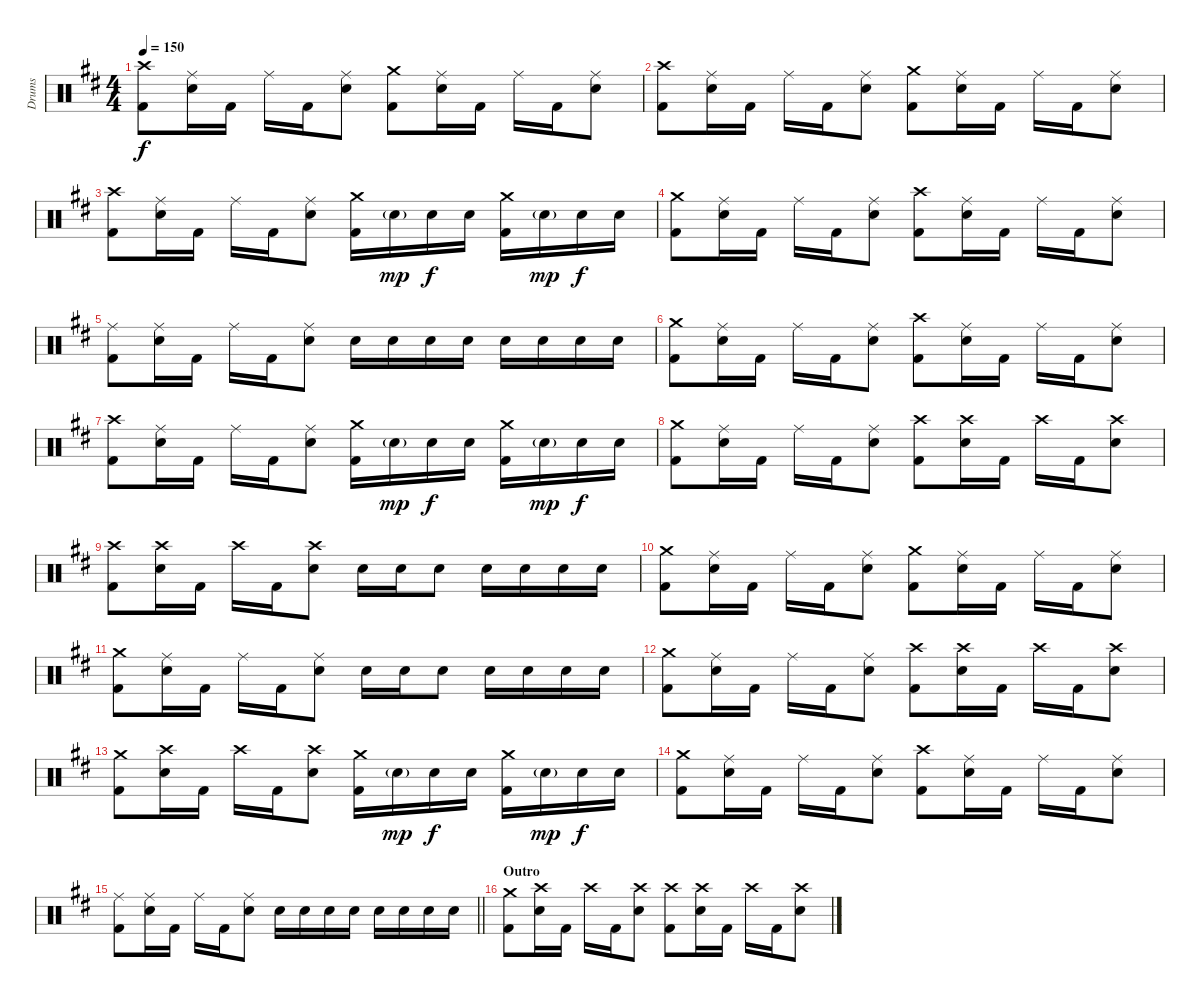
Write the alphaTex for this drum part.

\track ("Drums" "Drums") {instrument percussion}
\staff {score}
\articulation defaults
\ts (4 4)
\tempo 150
\clef neutral
\ks bminor
("Crash high (hit)" "Kick (hit) 2").8{dy f} ("Ride (middle)" "Electric Snare (hit)").16 "Kick (hit) 2".16 "Ride (middle)".16 "Kick (hit) 2".16 ("Ride (middle)" "Electric Snare (hit)").8 ("Crash medium (hit)" "Kick (hit) 2").8 ("Ride (middle)" "Electric Snare (hit)").16 "Kick (hit) 2".16 "Ride (middle)".16 "Kick (hit) 2".16 ("Ride (middle)" "Electric Snare (hit)").8 |
("Crash high (hit)" "Kick (hit) 2").8 ("Ride (middle)" "Electric Snare (hit)").16 "Kick (hit) 2".16 "Ride (middle)".16 "Kick (hit) 2".16 ("Ride (middle)" "Electric Snare (hit)").8 ("Crash medium (hit)" "Kick (hit) 2").8 ("Ride (middle)" "Electric Snare (hit)").16 "Kick (hit) 2".16 "Ride (middle)".16 "Kick (hit) 2".16 ("Ride (middle)" "Electric Snare (hit)").8 |
("Crash high (hit)" "Kick (hit) 2").8 ("Ride (middle)" "Electric Snare (hit)").16 "Kick (hit) 2".16 "Ride (middle)".16 "Kick (hit) 2".16 ("Ride (middle)" "Electric Snare (hit)").8 ("Crash medium (hit)" "Kick (hit) 2").16 "Electric Snare (hit)"{g}.16{dy mp} "Electric Snare (hit)".16{dy f} "Electric Snare (hit)".16 ("Crash medium (hit)" "Kick (hit) 2").16 "Electric Snare (hit)"{g}.16{dy mp} "Electric Snare (hit)".16{dy f} "Electric Snare (hit)".16 |
("Crash medium (hit)" "Kick (hit) 2").8 ("Ride (middle)" "Electric Snare (hit)").16 "Kick (hit) 2".16 "Ride (middle)".16 "Kick (hit) 2".16 ("Ride (middle)" "Electric Snare (hit)").8 ("Crash high (hit)" "Kick (hit) 2").8 ("Ride (middle)" "Electric Snare (hit)").16 "Kick (hit) 2".16 "Ride (middle)".16 "Kick (hit) 2".16 ("Ride (middle)" "Electric Snare (hit)").8 |
("Ride (middle)" "Kick (hit) 2").8 ("Ride (middle)" "Electric Snare (hit)").16 "Kick (hit) 2".16 "Ride (middle)".16 "Kick (hit) 2".16 ("Ride (middle)" "Electric Snare (hit)").8 "Electric Snare (hit)".16 "Electric Snare (hit)".16 "Electric Snare (hit)".16 "Electric Snare (hit)".16 "Electric Snare (hit)".16 "Electric Snare (hit)".16 "Electric Snare (hit)".16 "Electric Snare (hit)".16 |
("Crash medium (hit)" "Kick (hit) 2").8 ("Ride (middle)" "Electric Snare (hit)").16 "Kick (hit) 2".16 "Ride (middle)".16 "Kick (hit) 2".16 ("Ride (middle)" "Electric Snare (hit)").8 ("Crash high (hit)" "Kick (hit) 2").8 ("Ride (middle)" "Electric Snare (hit)").16 "Kick (hit) 2".16 "Ride (middle)".16 "Kick (hit) 2".16 ("Ride (middle)" "Electric Snare (hit)").8 |
("Crash high (hit)" "Kick (hit) 2").8 ("Ride (middle)" "Electric Snare (hit)").16 "Kick (hit) 2".16 "Ride (middle)".16 "Kick (hit) 2".16 ("Ride (middle)" "Electric Snare (hit)").8 ("Crash medium (hit)" "Kick (hit) 2").16 "Electric Snare (hit)"{g}.16{dy mp} "Electric Snare (hit)".16{dy f} "Electric Snare (hit)".16 ("Crash medium (hit)" "Kick (hit) 2").16 "Electric Snare (hit)"{g}.16{dy mp} "Electric Snare (hit)".16{dy f} "Electric Snare (hit)".16 |
("Crash medium (hit)" "Kick (hit) 2").8 ("Ride (middle)" "Electric Snare (hit)").16 "Kick (hit) 2".16 "Ride (middle)".16 "Kick (hit) 2".16 ("Ride (middle)" "Electric Snare (hit)").8 ("Crash high (hit)" "Kick (hit) 2").8 ("Crash high (hit)" "Electric Snare (hit)").16 "Kick (hit) 2".16 "Crash high (hit)".16 "Kick (hit) 2".16 ("Crash high (hit)" "Electric Snare (hit)").8 |
("Crash high (hit)" "Kick (hit) 2").8 ("Crash high (hit)" "Electric Snare (hit)").16 "Kick (hit) 2".16 "Crash high (hit)".16 "Kick (hit) 2".16 ("Crash high (hit)" "Electric Snare (hit)").8 "Electric Snare (hit)".16 "Electric Snare (hit)".16 "Electric Snare (hit)".8 "Electric Snare (hit)".16 "Electric Snare (hit)".16 "Electric Snare (hit)".16 "Electric Snare (hit)".16 |
("Crash medium (hit)" "Kick (hit) 2").8 ("Ride (middle)" "Electric Snare (hit)").16 "Kick (hit) 2".16 "Ride (middle)".16 "Kick (hit) 2".16 ("Ride (middle)" "Electric Snare (hit)").8 ("Crash medium (hit)" "Kick (hit) 2").8 ("Ride (middle)" "Electric Snare (hit)").16 "Kick (hit) 2".16 "Ride (middle)".16 "Kick (hit) 2".16 ("Ride (middle)" "Electric Snare (hit)").8 |
("Crash medium (hit)" "Kick (hit) 2").8 ("Ride (middle)" "Electric Snare (hit)").16 "Kick (hit) 2".16 "Ride (middle)".16 "Kick (hit) 2".16 ("Ride (middle)" "Electric Snare (hit)").8 "Electric Snare (hit)".16 "Electric Snare (hit)".16 "Electric Snare (hit)".8 "Electric Snare (hit)".16 "Electric Snare (hit)".16 "Electric Snare (hit)".16 "Electric Snare (hit)".16 |
("Crash medium (hit)" "Kick (hit) 2").8 ("Ride (middle)" "Electric Snare (hit)").16 "Kick (hit) 2".16 "Ride (middle)".16 "Kick (hit) 2".16 ("Ride (middle)" "Electric Snare (hit)").8 ("Crash high (hit)" "Kick (hit) 2").8 ("Crash high (hit)" "Electric Snare (hit)").16 "Kick (hit) 2".16 "Crash high (hit)".16 "Kick (hit) 2".16 ("Crash high (hit)" "Electric Snare (hit)").8 |
("Crash medium (hit)" "Kick (hit) 2").8 ("Crash high (hit)" "Electric Snare (hit)").16 "Kick (hit) 2".16 "Crash high (hit)".16 "Kick (hit) 2".16 ("Crash high (hit)" "Electric Snare (hit)").8 ("Crash medium (hit)" "Kick (hit) 2").16 "Electric Snare (hit)"{g}.16{dy mp} "Electric Snare (hit)".16{dy f} "Electric Snare (hit)".16 ("Crash medium (hit)" "Kick (hit) 2").16 "Electric Snare (hit)"{g}.16{dy mp} "Electric Snare (hit)".16{dy f} "Electric Snare (hit)".16 |
("Crash medium (hit)" "Kick (hit) 2").8 ("Ride (middle)" "Electric Snare (hit)").16 "Kick (hit) 2".16 "Ride (middle)".16 "Kick (hit) 2".16 ("Ride (middle)" "Electric Snare (hit)").8 ("Crash high (hit)" "Kick (hit) 2").8 ("Ride (middle)" "Electric Snare (hit)").16 "Kick (hit) 2".16 "Ride (middle)".16 "Kick (hit) 2".16 ("Ride (middle)" "Electric Snare (hit)").8 |
\barLineRight lightlight
("Ride (middle)" "Kick (hit) 2").8 ("Ride (middle)" "Electric Snare (hit)").16 "Kick (hit) 2".16 "Ride (middle)".16 "Kick (hit) 2".16 ("Ride (middle)" "Electric Snare (hit)").8 "Electric Snare (hit)".16 "Electric Snare (hit)".16 "Electric Snare (hit)".16 "Electric Snare (hit)".16 "Electric Snare (hit)".16 "Electric Snare (hit)".16 "Electric Snare (hit)".16 "Electric Snare (hit)".16 |
\section ("" "Outro")
("Crash medium (hit)" "Kick (hit) 2").8 ("Crash high (hit)" "Electric Snare (hit)").16 "Kick (hit) 2".16 "Crash high (hit)".16 "Kick (hit) 2".16 ("Crash high (hit)" "Electric Snare (hit)").8 ("Crash high (hit)" "Kick (hit) 2").8 ("Crash high (hit)" "Electric Snare (hit)").16 "Kick (hit) 2".16 "Crash high (hit)".16 "Kick (hit) 2".16 ("Crash high (hit)" "Electric Snare (hit)").8
